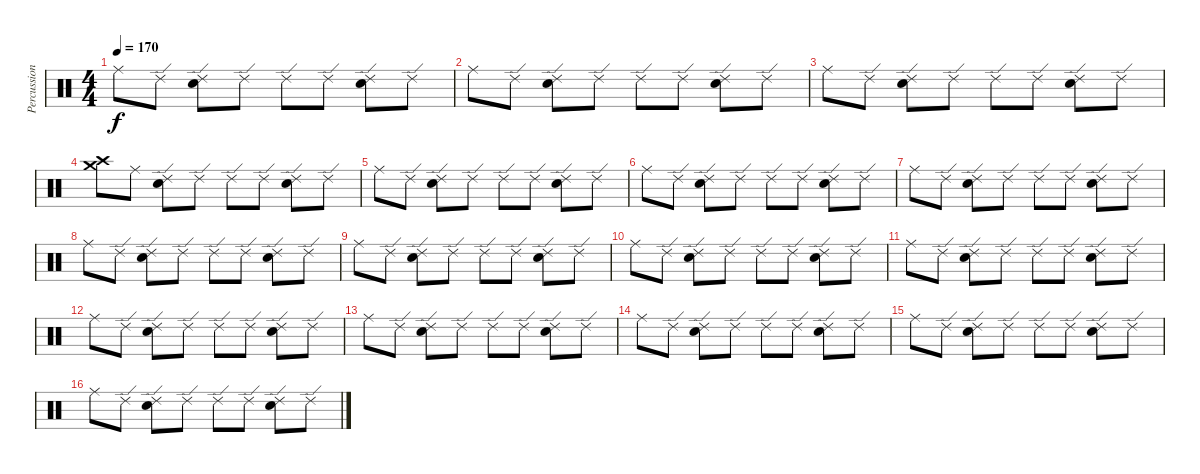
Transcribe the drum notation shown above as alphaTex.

\track ("Percussion" "Percussion") {instrument percussion}
\staff {score}
\articulation defaults
\ts (4 4)
\tempo 170
\clef neutral
\ks c "Ride (middle)".8{dy f} "Ride (edge) 2".8
("Ride (edge) 2" "Electric Snare (hit)").8 "Ride (edge) 2".8 "Ride (edge) 2".8 "Ride (edge) 2".8 ("Ride (edge) 2" "Electric Snare (hit)").8 "Ride (edge) 2".8 |
"Ride (middle)".8 "Ride (edge) 2".8 ("Ride (edge) 2" "Electric Snare (hit)").8 "Ride (edge) 2".8 "Ride (edge) 2".8 "Ride (edge) 2".8 ("Ride (edge) 2" "Electric Snare (hit)").8 "Ride (edge) 2".8 |
"Ride (middle)".8 "Ride (edge) 2".8 ("Ride (edge) 2" "Electric Snare (hit)").8 "Ride (edge) 2".8 "Ride (edge) 2".8 "Ride (edge) 2".8 ("Ride (edge) 2" "Electric Snare (hit)").8 "Ride (edge) 2".8 |
("Crash medium (hit)" "Crash high (hit)").8 "Ride (middle)".8 ("Ride (edge) 2" "Electric Snare (hit)").8 "Ride (edge) 2".8 "Ride (edge) 2".8 "Ride (edge) 2".8 ("Ride (edge) 2" "Electric Snare (hit)").8 "Ride (edge) 2".8 |
"Ride (middle)".8 "Ride (edge) 2".8 ("Ride (edge) 2" "Electric Snare (hit)").8 "Ride (edge) 2".8 "Ride (edge) 2".8 "Ride (edge) 2".8 ("Ride (edge) 2" "Electric Snare (hit)").8 "Ride (edge) 2".8 |
"Ride (middle)".8 "Ride (edge) 2".8 ("Ride (edge) 2" "Electric Snare (hit)").8 "Ride (edge) 2".8 "Ride (edge) 2".8 "Ride (edge) 2".8 ("Ride (edge) 2" "Electric Snare (hit)").8 "Ride (edge) 2".8 |
"Ride (middle)".8 "Ride (edge) 2".8 ("Ride (edge) 2" "Electric Snare (hit)").8 "Ride (edge) 2".8 "Ride (edge) 2".8 "Ride (edge) 2".8 ("Ride (edge) 2" "Electric Snare (hit)").8 "Ride (edge) 2".8 |
"Ride (middle)".8 "Ride (edge) 2".8 ("Ride (edge) 2" "Electric Snare (hit)").8 "Ride (edge) 2".8 "Ride (edge) 2".8 "Ride (edge) 2".8 ("Ride (edge) 2" "Electric Snare (hit)").8 "Ride (edge) 2".8 |
"Ride (middle)".8 "Ride (edge) 2".8 ("Ride (edge) 2" "Electric Snare (hit)").8 "Ride (edge) 2".8 "Ride (edge) 2".8 "Ride (edge) 2".8 ("Ride (edge) 2" "Electric Snare (hit)").8 "Ride (edge) 2".8 |
"Ride (middle)".8 "Ride (edge) 2".8 ("Ride (edge) 2" "Electric Snare (hit)").8 "Ride (edge) 2".8 "Ride (edge) 2".8 "Ride (edge) 2".8 ("Ride (edge) 2" "Electric Snare (hit)").8 "Ride (edge) 2".8 |
"Ride (middle)".8 "Ride (edge) 2".8 ("Ride (edge) 2" "Electric Snare (hit)").8 "Ride (edge) 2".8 "Ride (edge) 2".8 "Ride (edge) 2".8 ("Ride (edge) 2" "Electric Snare (hit)").8 "Ride (edge) 2".8 |
"Ride (middle)".8 "Ride (edge) 2".8 ("Ride (edge) 2" "Electric Snare (hit)").8 "Ride (edge) 2".8 "Ride (edge) 2".8 "Ride (edge) 2".8 ("Ride (edge) 2" "Electric Snare (hit)").8 "Ride (edge) 2".8 |
"Ride (middle)".8 "Ride (edge) 2".8 ("Ride (edge) 2" "Electric Snare (hit)").8 "Ride (edge) 2".8 "Ride (edge) 2".8 "Ride (edge) 2".8 ("Ride (edge) 2" "Electric Snare (hit)").8 "Ride (edge) 2".8 |
"Ride (middle)".8 "Ride (edge) 2".8 ("Ride (edge) 2" "Electric Snare (hit)").8 "Ride (edge) 2".8 "Ride (edge) 2".8 "Ride (edge) 2".8 ("Ride (edge) 2" "Electric Snare (hit)").8 "Ride (edge) 2".8 |
"Ride (middle)".8 "Ride (edge) 2".8 ("Ride (edge) 2" "Electric Snare (hit)").8 "Ride (edge) 2".8 "Ride (edge) 2".8 "Ride (edge) 2".8 ("Ride (edge) 2" "Electric Snare (hit)").8 "Ride (edge) 2".8 |
"Ride (middle)".8 "Ride (edge) 2".8 ("Ride (edge) 2" "Electric Snare (hit)").8 "Ride (edge) 2".8 "Ride (edge) 2".8 "Ride (edge) 2".8 ("Ride (edge) 2" "Electric Snare (hit)").8 "Ride (edge) 2".8
